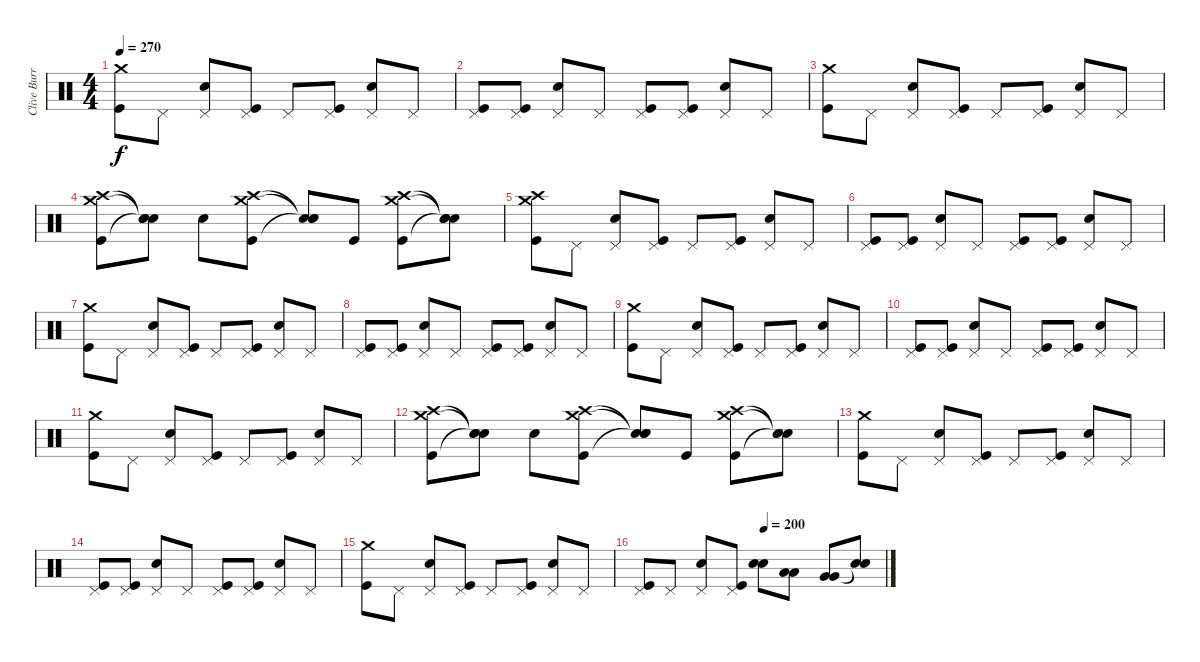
\track ("Clive Burr" "Clive Burr") {instrument percussion}
\staff {score}
\articulation defaults
\ts (4 4)
\tempo 270
\clef neutral
\ks c
("Crash medium (hit)" "Kick (hit)").8{dy f} "Pedal Hi-Hat (hit)".8 ("Pedal Hi-Hat (hit)" "Snare (hit) 2").8 ("Pedal Hi-Hat (hit)" "Kick (hit)").8 "Pedal Hi-Hat (hit)".8 ("Pedal Hi-Hat (hit)" "Kick (hit)").8 ("Pedal Hi-Hat (hit)" "Snare (hit) 2").8 "Pedal Hi-Hat (hit)".8 |
("Pedal Hi-Hat (hit)" "Kick (hit)").8 ("Pedal Hi-Hat (hit)" "Kick (hit)").8 ("Pedal Hi-Hat (hit)" "Snare (hit) 2").8 "Pedal Hi-Hat (hit)".8 ("Pedal Hi-Hat (hit)" "Kick (hit)").8 ("Pedal Hi-Hat (hit)" "Kick (hit)").8 ("Pedal Hi-Hat (hit)" "Snare (hit) 2").8 "Pedal Hi-Hat (hit)".8 |
("Crash medium (hit)" "Kick (hit)").8 "Pedal Hi-Hat (hit)".8 ("Pedal Hi-Hat (hit)" "Snare (hit) 2").8 ("Pedal Hi-Hat (hit)" "Kick (hit)").8 "Pedal Hi-Hat (hit)".8 ("Pedal Hi-Hat (hit)" "Kick (hit)").8 ("Pedal Hi-Hat (hit)" "Snare (hit) 2").8 "Pedal Hi-Hat (hit)".8 |
("Crash medium (hit)" "Crash high (hit)" "Kick (hit)").8 ("Snare (hit)"{t} "Snare (hit)"{t} "Snare (hit)"{t}).8 "Snare (hit) 2".8 ("Crash medium (hit)" "Crash high (hit)" "Kick (hit)").8 ("Snare (hit)"{t} "Snare (hit)"{t} "Snare (hit)"{t}).8 "Kick (hit)".8 ("Crash medium (hit)" "Crash high (hit)" "Kick (hit)").8 ("Snare (hit)"{t} "Snare (hit)"{t} "Snare (hit)"{t}).8 |
("Crash medium (hit)" "Crash high (hit)" "Kick (hit)").8 "Pedal Hi-Hat (hit)".8 ("Pedal Hi-Hat (hit)" "Snare (hit) 2").8 ("Pedal Hi-Hat (hit)" "Kick (hit)").8 "Pedal Hi-Hat (hit)".8 ("Pedal Hi-Hat (hit)" "Kick (hit)").8 ("Pedal Hi-Hat (hit)" "Snare (hit) 2").8 "Pedal Hi-Hat (hit)".8 |
("Pedal Hi-Hat (hit)" "Kick (hit)").8 ("Pedal Hi-Hat (hit)" "Kick (hit)").8 ("Pedal Hi-Hat (hit)" "Snare (hit) 2").8 "Pedal Hi-Hat (hit)".8 ("Pedal Hi-Hat (hit)" "Kick (hit)").8 ("Pedal Hi-Hat (hit)" "Kick (hit)").8 ("Pedal Hi-Hat (hit)" "Snare (hit) 2").8 "Pedal Hi-Hat (hit)".8 |
("Crash medium (hit)" "Kick (hit)").8 "Pedal Hi-Hat (hit)".8 ("Pedal Hi-Hat (hit)" "Snare (hit) 2").8 ("Pedal Hi-Hat (hit)" "Kick (hit)").8 "Pedal Hi-Hat (hit)".8 ("Pedal Hi-Hat (hit)" "Kick (hit)").8 ("Pedal Hi-Hat (hit)" "Snare (hit) 2").8 "Pedal Hi-Hat (hit)".8 |
("Pedal Hi-Hat (hit)" "Kick (hit)").8 ("Pedal Hi-Hat (hit)" "Kick (hit)").8 ("Pedal Hi-Hat (hit)" "Snare (hit) 2").8 "Pedal Hi-Hat (hit)".8 ("Pedal Hi-Hat (hit)" "Kick (hit)").8 ("Pedal Hi-Hat (hit)" "Kick (hit)").8 ("Pedal Hi-Hat (hit)" "Snare (hit) 2").8 "Pedal Hi-Hat (hit)".8 |
("Crash medium (hit)" "Kick (hit)").8 "Pedal Hi-Hat (hit)".8 ("Pedal Hi-Hat (hit)" "Snare (hit) 2").8 ("Pedal Hi-Hat (hit)" "Kick (hit)").8 "Pedal Hi-Hat (hit)".8 ("Pedal Hi-Hat (hit)" "Kick (hit)").8 ("Pedal Hi-Hat (hit)" "Snare (hit) 2").8 "Pedal Hi-Hat (hit)".8 |
("Pedal Hi-Hat (hit)" "Kick (hit)").8 ("Pedal Hi-Hat (hit)" "Kick (hit)").8 ("Pedal Hi-Hat (hit)" "Snare (hit) 2").8 "Pedal Hi-Hat (hit)".8 ("Pedal Hi-Hat (hit)" "Kick (hit)").8 ("Pedal Hi-Hat (hit)" "Kick (hit)").8 ("Pedal Hi-Hat (hit)" "Snare (hit) 2").8 "Pedal Hi-Hat (hit)".8 |
("Crash medium (hit)" "Kick (hit)").8 "Pedal Hi-Hat (hit)".8 ("Pedal Hi-Hat (hit)" "Snare (hit) 2").8 ("Pedal Hi-Hat (hit)" "Kick (hit)").8 "Pedal Hi-Hat (hit)".8 ("Pedal Hi-Hat (hit)" "Kick (hit)").8 ("Pedal Hi-Hat (hit)" "Snare (hit) 2").8 "Pedal Hi-Hat (hit)".8 |
("Crash medium (hit)" "Crash high (hit)" "Kick (hit)").8 ("Snare (hit)"{t} "Snare (hit)"{t} "Snare (hit)"{t}).8 "Snare (hit) 2".8 ("Crash medium (hit)" "Crash high (hit)" "Kick (hit)").8 ("Snare (hit)"{t} "Snare (hit)"{t} "Snare (hit)"{t}).8 "Kick (hit)".8 ("Crash medium (hit)" "Crash high (hit)" "Kick (hit)").8 ("Snare (hit)"{t} "Snare (hit)"{t} "Snare (hit)"{t}).8 |
("Crash medium (hit)" "Kick (hit)").8 "Pedal Hi-Hat (hit)".8 ("Pedal Hi-Hat (hit)" "Snare (hit) 2").8 ("Pedal Hi-Hat (hit)" "Kick (hit)").8 "Pedal Hi-Hat (hit)".8 ("Pedal Hi-Hat (hit)" "Kick (hit)").8 ("Pedal Hi-Hat (hit)" "Snare (hit) 2").8 "Pedal Hi-Hat (hit)".8 |
("Pedal Hi-Hat (hit)" "Kick (hit)").8 ("Pedal Hi-Hat (hit)" "Kick (hit)").8 ("Pedal Hi-Hat (hit)" "Snare (hit) 2").8 "Pedal Hi-Hat (hit)".8 ("Pedal Hi-Hat (hit)" "Kick (hit)").8 ("Pedal Hi-Hat (hit)" "Kick (hit)").8 ("Pedal Hi-Hat (hit)" "Snare (hit) 2").8 "Pedal Hi-Hat (hit)".8 |
("Crash medium (hit)" "Kick (hit)").8 "Pedal Hi-Hat (hit)".8 ("Pedal Hi-Hat (hit)" "Snare (hit) 2").8 ("Pedal Hi-Hat (hit)" "Kick (hit)").8 "Pedal Hi-Hat (hit)".8 ("Pedal Hi-Hat (hit)" "Kick (hit)").8 ("Pedal Hi-Hat (hit)" "Snare (hit) 2").8 "Pedal Hi-Hat (hit)".8 |
\tempo (200 0.5)
("Pedal Hi-Hat (hit)" "Kick (hit)").8 "Pedal Hi-Hat (hit)".8 ("Pedal Hi-Hat (hit)" "Snare (hit) 2").8 ("Pedal Hi-Hat (hit)" "Kick (hit)").8 ("Snare (hit) 2" "Snare (hit) 2").8 ("Low Tom (hit)" "Low Tom (hit)").8 ("Very Low Tom (hit)" "Very Low Tom (hit)").8 ("Snare (hit)"{t} "Snare (hit)"{t}).8
